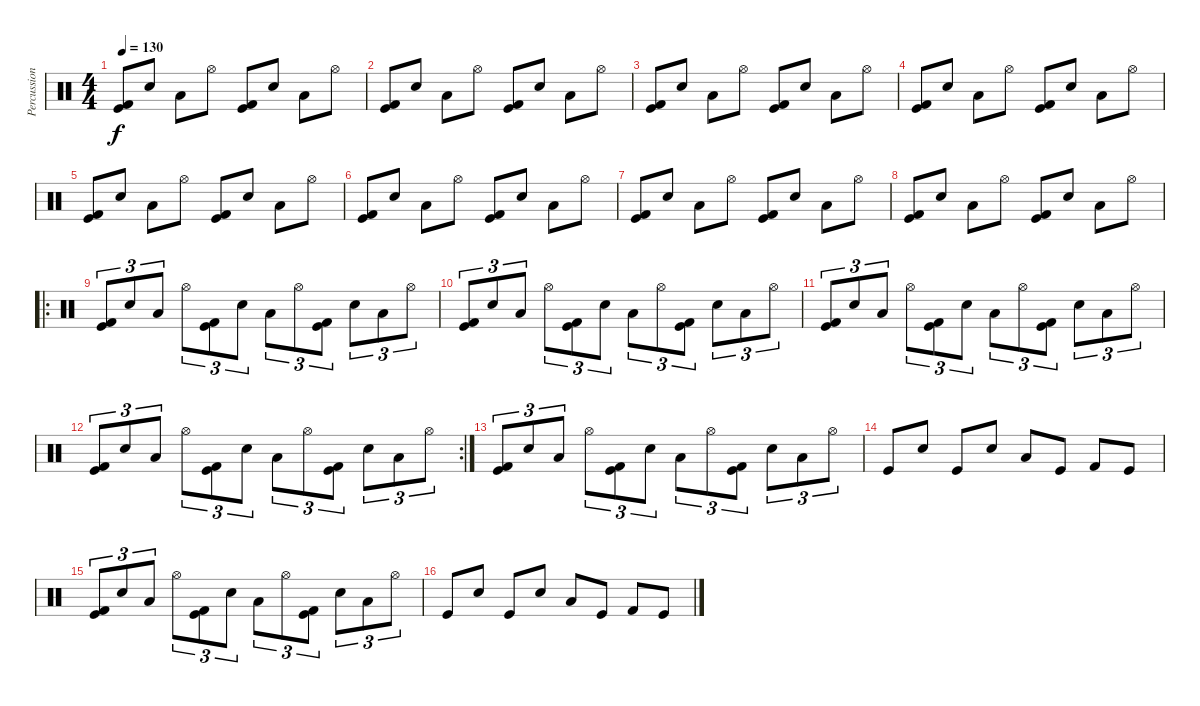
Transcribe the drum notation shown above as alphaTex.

\track ("Percussion" "Percussion") {instrument percussion}
\staff {score}
\articulation defaults
\ts (4 4)
\tempo 130
\clef neutral
\ks c
("Kick (hit)" "Kick (hit) 2").8{dy f} "Snare (hit) 2".8 "Low Tom (hit)".8 "Hi-Hat (open)".8 ("Kick (hit)" "Kick (hit) 2").8 "Snare (hit) 2".8 "Low Tom (hit)".8 "Hi-Hat (open)".8 |
("Kick (hit)" "Kick (hit) 2").8 "Snare (hit) 2".8 "Low Tom (hit)".8 "Hi-Hat (open)".8 ("Kick (hit)" "Kick (hit) 2").8 "Snare (hit) 2".8 "Low Tom (hit)".8 "Hi-Hat (open)".8 |
("Kick (hit)" "Kick (hit) 2").8 "Snare (hit) 2".8 "Low Tom (hit)".8 "Hi-Hat (open)".8 ("Kick (hit)" "Kick (hit) 2").8 "Snare (hit) 2".8 "Low Tom (hit)".8 "Hi-Hat (open)".8 |
("Kick (hit)" "Kick (hit) 2").8 "Snare (hit) 2".8 "Low Tom (hit)".8 "Hi-Hat (open)".8 ("Kick (hit)" "Kick (hit) 2").8 "Snare (hit) 2".8 "Low Tom (hit)".8 "Hi-Hat (open)".8 |
("Kick (hit)" "Kick (hit) 2").8 "Snare (hit) 2".8 "Low Tom (hit)".8 "Hi-Hat (open)".8 ("Kick (hit)" "Kick (hit) 2").8 "Snare (hit) 2".8 "Low Tom (hit)".8 "Hi-Hat (open)".8 |
("Kick (hit)" "Kick (hit) 2").8 "Snare (hit) 2".8 "Low Tom (hit)".8 "Hi-Hat (open)".8 ("Kick (hit)" "Kick (hit) 2").8 "Snare (hit) 2".8 "Low Tom (hit)".8 "Hi-Hat (open)".8 |
("Kick (hit)" "Kick (hit) 2").8 "Snare (hit) 2".8 "Low Tom (hit)".8 "Hi-Hat (open)".8 ("Kick (hit)" "Kick (hit) 2").8 "Snare (hit) 2".8 "Low Tom (hit)".8 "Hi-Hat (open)".8 |
("Kick (hit)" "Kick (hit) 2").8 "Snare (hit) 2".8 "Low Tom (hit)".8 "Hi-Hat (open)".8 ("Kick (hit)" "Kick (hit) 2").8 "Snare (hit) 2".8 "Low Tom (hit)".8 "Hi-Hat (open)".8 |
\ro
("Kick (hit)" "Kick (hit) 2").8{tu (3 2)} "Snare (hit) 2".8{tu (3 2)} "Low Tom (hit)".8{tu (3 2)} "Hi-Hat (open)".8{tu (3 2)} ("Kick (hit)" "Kick (hit) 2").8{tu (3 2)} "Snare (hit) 2".8{tu (3 2)} "Low Tom (hit)".8{tu (3 2)} "Hi-Hat (open)".8{tu (3 2)} ("Kick (hit)" "Kick (hit) 2").8{tu (3 2)} "Snare (hit) 2".8{tu (3 2)} "Low Tom (hit)".8{tu (3 2)} "Hi-Hat (open)".8{tu (3 2)} |
("Kick (hit)" "Kick (hit) 2").8{tu (3 2)} "Snare (hit) 2".8{tu (3 2)} "Low Tom (hit)".8{tu (3 2)} "Hi-Hat (open)".8{tu (3 2)} ("Kick (hit)" "Kick (hit) 2").8{tu (3 2)} "Snare (hit) 2".8{tu (3 2)} "Low Tom (hit)".8{tu (3 2)} "Hi-Hat (open)".8{tu (3 2)} ("Kick (hit)" "Kick (hit) 2").8{tu (3 2)} "Snare (hit) 2".8{tu (3 2)} "Low Tom (hit)".8{tu (3 2)} "Hi-Hat (open)".8{tu (3 2)} |
("Kick (hit)" "Kick (hit) 2").8{tu (3 2)} "Snare (hit) 2".8{tu (3 2)} "Low Tom (hit)".8{tu (3 2)} "Hi-Hat (open)".8{tu (3 2)} ("Kick (hit)" "Kick (hit) 2").8{tu (3 2)} "Snare (hit) 2".8{tu (3 2)} "Low Tom (hit)".8{tu (3 2)} "Hi-Hat (open)".8{tu (3 2)} ("Kick (hit)" "Kick (hit) 2").8{tu (3 2)} "Snare (hit) 2".8{tu (3 2)} "Low Tom (hit)".8{tu (3 2)} "Hi-Hat (open)".8{tu (3 2)} |
\rc 2
("Kick (hit)" "Kick (hit) 2").8{tu (3 2)} "Snare (hit) 2".8{tu (3 2)} "Low Tom (hit)".8{tu (3 2)} "Hi-Hat (open)".8{tu (3 2)} ("Kick (hit)" "Kick (hit) 2").8{tu (3 2)} "Snare (hit) 2".8{tu (3 2)} "Low Tom (hit)".8{tu (3 2)} "Hi-Hat (open)".8{tu (3 2)} ("Kick (hit)" "Kick (hit) 2").8{tu (3 2)} "Snare (hit) 2".8{tu (3 2)} "Low Tom (hit)".8{tu (3 2)} "Hi-Hat (open)".8{tu (3 2)} |
("Kick (hit)" "Kick (hit) 2").8{tu (3 2)} "Snare (hit) 2".8{tu (3 2)} "Low Tom (hit)".8{tu (3 2)} "Hi-Hat (open)".8{tu (3 2)} ("Kick (hit)" "Kick (hit) 2").8{tu (3 2)} "Snare (hit) 2".8{tu (3 2)} "Low Tom (hit)".8{tu (3 2)} "Hi-Hat (open)".8{tu (3 2)} ("Kick (hit)" "Kick (hit) 2").8{tu (3 2)} "Snare (hit) 2".8{tu (3 2)} "Low Tom (hit)".8{tu (3 2)} "Hi-Hat (open)".8{tu (3 2)} |
"Kick (hit)".8 "Snare (hit) 2".8 "Kick (hit)".8 "Snare (hit) 2".8 "Low Tom (hit)".8 "Kick (hit)".8 "Kick (hit) 2".8 "Kick (hit)".8 |
("Kick (hit)" "Kick (hit) 2").8{tu (3 2)} "Snare (hit) 2".8{tu (3 2)} "Low Tom (hit)".8{tu (3 2)} "Hi-Hat (open)".8{tu (3 2)} ("Kick (hit)" "Kick (hit) 2").8{tu (3 2)} "Snare (hit) 2".8{tu (3 2)} "Low Tom (hit)".8{tu (3 2)} "Hi-Hat (open)".8{tu (3 2)} ("Kick (hit)" "Kick (hit) 2").8{tu (3 2)} "Snare (hit) 2".8{tu (3 2)} "Low Tom (hit)".8{tu (3 2)} "Hi-Hat (open)".8{tu (3 2)} |
"Kick (hit)".8 "Snare (hit) 2".8 "Kick (hit)".8 "Snare (hit) 2".8 "Low Tom (hit)".8 "Kick (hit)".8 "Kick (hit) 2".8 "Kick (hit)".8
